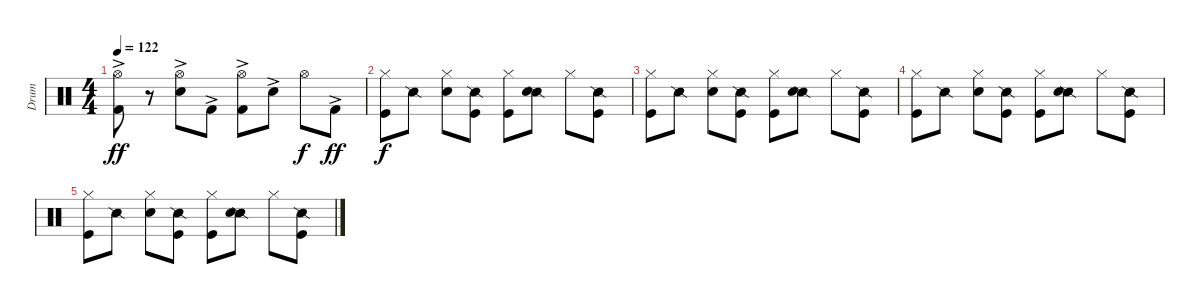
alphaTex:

\track ("Drum" "Drum") {instrument percussion}
\staff {score}
\articulation defaults
\ts (4 4)
\tempo 122
\clef neutral
\ks c
("Hi-Hat (open)" "Kick (hit) 2"{ac}).8{dy ff} r.8 ("Hi-Hat (open)" "Electric Snare (hit)"{ac}).8 "Kick (hit) 2"{ac}.8 ("Hi-Hat (open)" "Kick (hit) 2"{ac}).8 "Electric Snare (hit)"{ac}.8 "Hi-Hat (open)".8{dy f} "Kick (hit) 2"{ac}.8{dy ff} |
("Hi-Hat (closed)" "Kick (hit)").8{dy f volume 8} "Snare (side stick) 2".8 ("Hi-Hat (closed)" "Electric Snare (hit)").8 ("Snare (side stick) 2" "Kick (hit)").8 ("Hi-Hat (closed)" "Kick (hit)").8 ("Snare (side stick) 2" "Electric Snare (hit)").8 "Hi-Hat (closed)".8 ("Snare (side stick) 2" "Kick (hit)").8 |
("Hi-Hat (closed)" "Kick (hit)").8 "Snare (side stick) 2".8 ("Hi-Hat (closed)" "Electric Snare (hit)").8 ("Snare (side stick) 2" "Kick (hit)").8 ("Hi-Hat (closed)" "Kick (hit)").8 ("Snare (side stick) 2" "Electric Snare (hit)").8 "Hi-Hat (closed)".8 ("Snare (side stick) 2" "Kick (hit)").8 |
("Hi-Hat (closed)" "Kick (hit)").8 "Snare (side stick) 2".8 ("Hi-Hat (closed)" "Electric Snare (hit)").8 ("Snare (side stick) 2" "Kick (hit)").8 ("Hi-Hat (closed)" "Kick (hit)").8 ("Snare (side stick) 2" "Electric Snare (hit)").8 "Hi-Hat (closed)".8 ("Snare (side stick) 2" "Kick (hit)").8 |
("Hi-Hat (closed)" "Kick (hit)").8 "Snare (side stick) 2".8 ("Hi-Hat (closed)" "Electric Snare (hit)").8 ("Snare (side stick) 2" "Kick (hit)").8 ("Hi-Hat (closed)" "Kick (hit)").8 ("Snare (side stick) 2" "Electric Snare (hit)").8 "Hi-Hat (closed)".8 ("Snare (side stick) 2" "Kick (hit)").8
